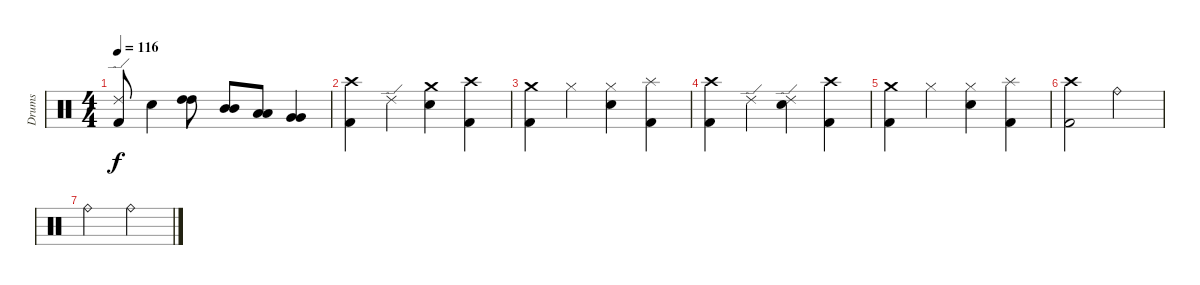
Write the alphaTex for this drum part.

\track ("Drums" "Drums") {instrument percussion}
\staff {score}
\articulation defaults
\ts (4 4)
\tempo 116
\clef neutral
\ks c
("Ride (edge) 2" "Kick (hit) 2").8{dy f} "Snare (hit) 2".4 ("High Tom (hit)" "High Tom (hit)").8 ("Mid Tom (hit)" "Mid Tom (hit)").8 ("Low Tom (hit)" "Low Tom (hit)").8 ("Very Low Tom (hit)" "Very Low Tom (hit)").4 |
("Crash high (hit)" "Kick (hit) 2").4 "Ride (edge) 2".4 ("Crash medium (hit)" "Snare (hit) 2").4 ("Crash high (hit)" "Kick (hit) 2").4 |
("Crash medium (hit)" "Kick (hit) 2").4 "Hi-Hat (closed)".4 ("Hi-Hat (closed)" "Snare (hit) 2").4 ("Splash (hit)" "Kick (hit) 2").4 |
("Crash high (hit)" "Kick (hit) 2").4 "Ride (edge) 2".4 ("Ride (edge) 2" "Snare (hit) 2").4 ("Crash high (hit)" "Kick (hit) 2").4 |
("Crash medium (hit)" "Kick (hit) 2").4 "Hi-Hat (closed)".4 ("Hi-Hat (closed)" "Snare (hit) 2").4 ("Splash (hit)" "Kick (hit) 2").4 |
("Crash high (hit)" "Kick (hit) 2").2 "Ride (bell)".2 |
"Ride (bell)".2 "Ride (bell)".2
